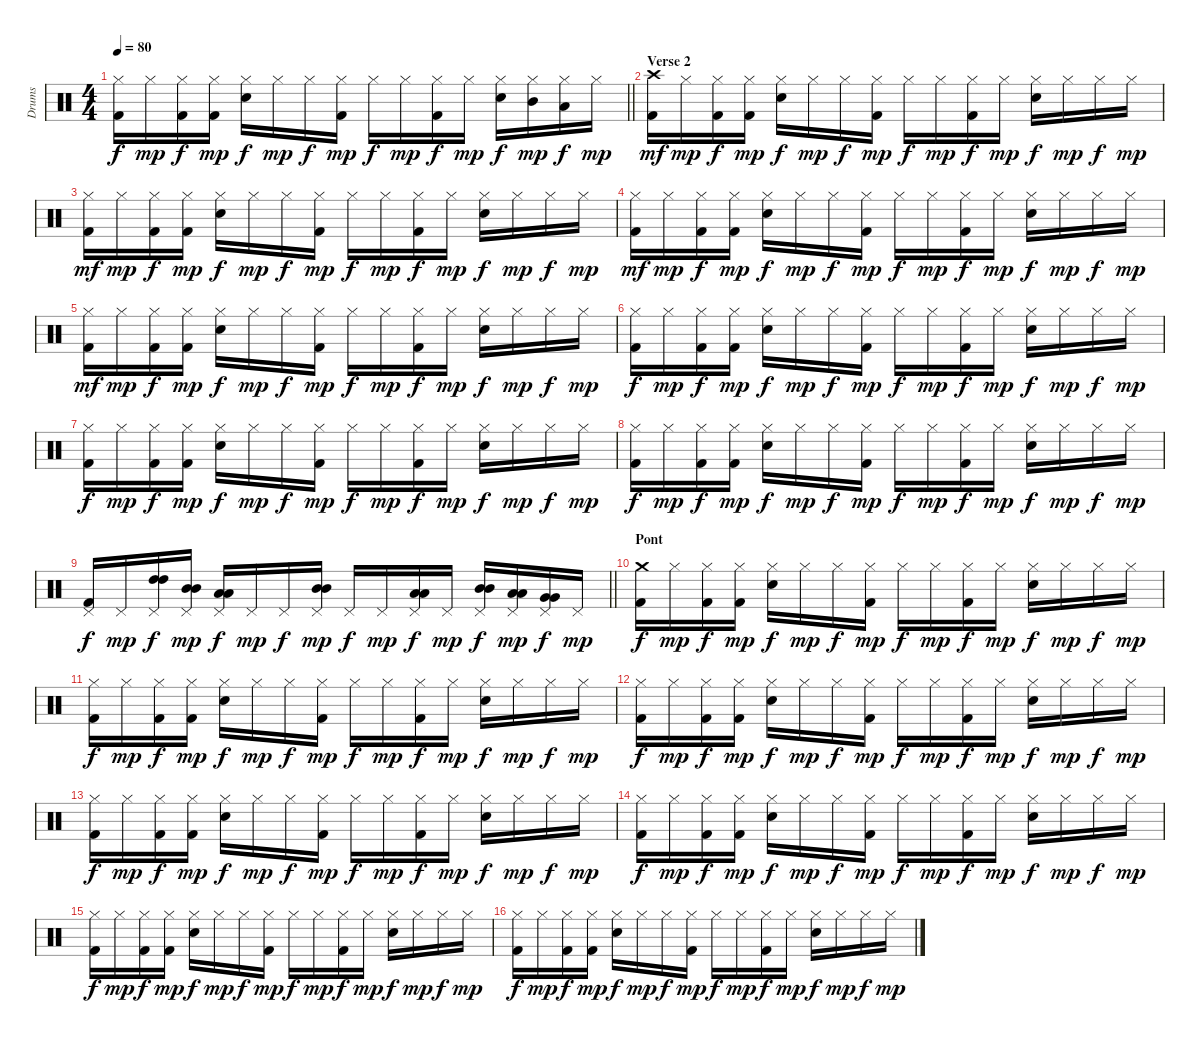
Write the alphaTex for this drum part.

\track ("Drums" "Drums") {instrument percussion}
\staff {score}
\articulation defaults
\ts (4 4)
\tempo 80
\clef neutral
\barLineRight lightlight
\ks c
("Hi-Hat (closed)" "Kick (hit) 2").16{dy f} "Hi-Hat (closed)".16{dy mp} ("Hi-Hat (closed)" "Kick (hit) 2").16{dy f} ("Hi-Hat (closed)" "Kick (hit) 2").16{dy mp} ("Hi-Hat (closed)" "Electric Snare (hit)").16{dy f} "Hi-Hat (closed)".16{dy mp} "Hi-Hat (closed)".16{dy f} ("Hi-Hat (closed)" "Kick (hit) 2").16{dy mp} "Hi-Hat (closed)".16{dy f} "Hi-Hat (closed)".16{dy mp} ("Hi-Hat (closed)" "Kick (hit) 2").16{dy f} "Hi-Hat (closed)".16{dy mp} ("Hi-Hat (closed)" "Electric Snare (hit)").16{dy f} ("Hi-Hat (closed)" "Mid Tom (hit)").16{dy mp} ("Hi-Hat (closed)" "Low Tom (hit)").16{dy f} "Hi-Hat (closed)".16{dy mp} |
\section ("" "Verse 2")
("Crash high (hit)" "Kick (hit) 2").16{dy mf} "Hi-Hat (closed)".16{dy mp} ("Hi-Hat (closed)" "Kick (hit) 2").16{dy f} ("Hi-Hat (closed)" "Kick (hit) 2").16{dy mp} ("Hi-Hat (closed)" "Electric Snare (hit)").16{dy f} "Hi-Hat (closed)".16{dy mp} "Hi-Hat (closed)".16{dy f} ("Hi-Hat (closed)" "Kick (hit) 2").16{dy mp} "Hi-Hat (closed)".16{dy f} "Hi-Hat (closed)".16{dy mp} ("Hi-Hat (closed)" "Kick (hit) 2").16{dy f} "Hi-Hat (closed)".16{dy mp} ("Hi-Hat (closed)" "Electric Snare (hit)").16{dy f} "Hi-Hat (closed)".16{dy mp} "Hi-Hat (closed)".16{dy f} "Hi-Hat (closed)".16{dy mp} |
("Hi-Hat (closed)" "Kick (hit) 2").16{dy mf} "Hi-Hat (closed)".16{dy mp} ("Hi-Hat (closed)" "Kick (hit) 2").16{dy f} ("Hi-Hat (closed)" "Kick (hit) 2").16{dy mp} ("Hi-Hat (closed)" "Electric Snare (hit)").16{dy f} "Hi-Hat (closed)".16{dy mp} "Hi-Hat (closed)".16{dy f} ("Hi-Hat (closed)" "Kick (hit) 2").16{dy mp} "Hi-Hat (closed)".16{dy f} "Hi-Hat (closed)".16{dy mp} ("Hi-Hat (closed)" "Kick (hit) 2").16{dy f} "Hi-Hat (closed)".16{dy mp} ("Hi-Hat (closed)" "Electric Snare (hit)").16{dy f} "Hi-Hat (closed)".16{dy mp} "Hi-Hat (closed)".16{dy f} "Hi-Hat (closed)".16{dy mp} |
("Hi-Hat (closed)" "Kick (hit) 2").16{dy mf} "Hi-Hat (closed)".16{dy mp} ("Hi-Hat (closed)" "Kick (hit) 2").16{dy f} ("Hi-Hat (closed)" "Kick (hit) 2").16{dy mp} ("Hi-Hat (closed)" "Electric Snare (hit)").16{dy f} "Hi-Hat (closed)".16{dy mp} "Hi-Hat (closed)".16{dy f} ("Hi-Hat (closed)" "Kick (hit) 2").16{dy mp} "Hi-Hat (closed)".16{dy f} "Hi-Hat (closed)".16{dy mp} ("Hi-Hat (closed)" "Kick (hit) 2").16{dy f} "Hi-Hat (closed)".16{dy mp} ("Hi-Hat (closed)" "Electric Snare (hit)").16{dy f} "Hi-Hat (closed)".16{dy mp} "Hi-Hat (closed)".16{dy f} "Hi-Hat (closed)".16{dy mp} |
("Hi-Hat (closed)" "Kick (hit) 2").16{dy mf} "Hi-Hat (closed)".16{dy mp} ("Hi-Hat (closed)" "Kick (hit) 2").16{dy f} ("Hi-Hat (closed)" "Kick (hit) 2").16{dy mp} ("Hi-Hat (closed)" "Electric Snare (hit)").16{dy f} "Hi-Hat (closed)".16{dy mp} "Hi-Hat (closed)".16{dy f} ("Hi-Hat (closed)" "Kick (hit) 2").16{dy mp} "Hi-Hat (closed)".16{dy f} "Hi-Hat (closed)".16{dy mp} ("Hi-Hat (closed)" "Kick (hit) 2").16{dy f} "Hi-Hat (closed)".16{dy mp} ("Hi-Hat (closed)" "Electric Snare (hit)").16{dy f} "Hi-Hat (closed)".16{dy mp} "Hi-Hat (closed)".16{dy f} "Hi-Hat (closed)".16{dy mp} |
("Hi-Hat (closed)" "Kick (hit) 2").16{dy f} "Hi-Hat (closed)".16{dy mp} ("Hi-Hat (closed)" "Kick (hit) 2").16{dy f} ("Hi-Hat (closed)" "Kick (hit) 2").16{dy mp} ("Hi-Hat (closed)" "Electric Snare (hit)").16{dy f} "Hi-Hat (closed)".16{dy mp} "Hi-Hat (closed)".16{dy f} ("Hi-Hat (closed)" "Kick (hit) 2").16{dy mp} "Hi-Hat (closed)".16{dy f} "Hi-Hat (closed)".16{dy mp} ("Hi-Hat (closed)" "Kick (hit) 2").16{dy f} "Hi-Hat (closed)".16{dy mp} ("Hi-Hat (closed)" "Electric Snare (hit)").16{dy f} "Hi-Hat (closed)".16{dy mp} "Hi-Hat (closed)".16{dy f} "Hi-Hat (closed)".16{dy mp} |
("Hi-Hat (closed)" "Kick (hit) 2").16{dy f} "Hi-Hat (closed)".16{dy mp} ("Hi-Hat (closed)" "Kick (hit) 2").16{dy f} ("Hi-Hat (closed)" "Kick (hit) 2").16{dy mp} ("Hi-Hat (closed)" "Electric Snare (hit)").16{dy f} "Hi-Hat (closed)".16{dy mp} "Hi-Hat (closed)".16{dy f} ("Hi-Hat (closed)" "Kick (hit) 2").16{dy mp} "Hi-Hat (closed)".16{dy f} "Hi-Hat (closed)".16{dy mp} ("Hi-Hat (closed)" "Kick (hit) 2").16{dy f} "Hi-Hat (closed)".16{dy mp} ("Hi-Hat (closed)" "Electric Snare (hit)").16{dy f} "Hi-Hat (closed)".16{dy mp} "Hi-Hat (closed)".16{dy f} "Hi-Hat (closed)".16{dy mp} |
("Hi-Hat (closed)" "Kick (hit) 2").16{dy f} "Hi-Hat (closed)".16{dy mp} ("Hi-Hat (closed)" "Kick (hit) 2").16{dy f} ("Hi-Hat (closed)" "Kick (hit) 2").16{dy mp} ("Hi-Hat (closed)" "Electric Snare (hit)").16{dy f} "Hi-Hat (closed)".16{dy mp} "Hi-Hat (closed)".16{dy f} ("Hi-Hat (closed)" "Kick (hit) 2").16{dy mp} "Hi-Hat (closed)".16{dy f} "Hi-Hat (closed)".16{dy mp} ("Hi-Hat (closed)" "Kick (hit) 2").16{dy f} "Hi-Hat (closed)".16{dy mp} ("Hi-Hat (closed)" "Electric Snare (hit)").16{dy f} "Hi-Hat (closed)".16{dy mp} "Hi-Hat (closed)".16{dy f} "Hi-Hat (closed)".16{dy mp} |
\barLineRight lightlight
("Pedal Hi-Hat (hit)" "Kick (hit) 2").16{dy f} "Pedal Hi-Hat (hit)".16{dy mp} ("Pedal Hi-Hat (hit)" "High Tom (hit)" "High Tom (hit)").16{dy f} ("Pedal Hi-Hat (hit)" "Mid Tom (hit)" "Mid Tom (hit)").16{dy mp} ("Pedal Hi-Hat (hit)" "Low Tom (hit)" "Low Tom (hit)").16{dy f} "Pedal Hi-Hat (hit)".16{dy mp} "Pedal Hi-Hat (hit)".16{dy f} ("Pedal Hi-Hat (hit)" "Mid Tom (hit)" "Mid Tom (hit)").16{dy mp} "Pedal Hi-Hat (hit)".16{dy f} "Pedal Hi-Hat (hit)".16{dy mp} ("Pedal Hi-Hat (hit)" "Low Tom (hit)" "Low Tom (hit)").16{dy f} "Pedal Hi-Hat (hit)".16{dy mp} ("Pedal Hi-Hat (hit)" "Mid Tom (hit)" "Mid Tom (hit)").16{dy f} ("Pedal Hi-Hat (hit)" "Low Tom (hit)" "Low Tom (hit)").16{dy mp} ("Pedal Hi-Hat (hit)" "Very Low Tom (hit)" "Very Low Tom (hit)").16{dy f} "Pedal Hi-Hat (hit)".16{dy mp} |
\section ("" "Pont")
("Crash medium (hit)" "Kick (hit) 2").16{dy f} "Hi-Hat (closed)".16{dy mp} ("Hi-Hat (closed)" "Kick (hit) 2").16{dy f} ("Hi-Hat (closed)" "Kick (hit) 2").16{dy mp} ("Hi-Hat (closed)" "Electric Snare (hit)").16{dy f} "Hi-Hat (closed)".16{dy mp} "Hi-Hat (closed)".16{dy f} ("Hi-Hat (closed)" "Kick (hit) 2").16{dy mp} "Hi-Hat (closed)".16{dy f} "Hi-Hat (closed)".16{dy mp} ("Hi-Hat (closed)" "Kick (hit) 2").16{dy f} "Hi-Hat (closed)".16{dy mp} ("Hi-Hat (closed)" "Electric Snare (hit)").16{dy f} "Hi-Hat (closed)".16{dy mp} "Hi-Hat (closed)".16{dy f} "Hi-Hat (closed)".16{dy mp} |
("Hi-Hat (closed)" "Kick (hit) 2").16{dy f} "Hi-Hat (closed)".16{dy mp} ("Hi-Hat (closed)" "Kick (hit) 2").16{dy f} ("Hi-Hat (closed)" "Kick (hit) 2").16{dy mp} ("Hi-Hat (closed)" "Electric Snare (hit)").16{dy f} "Hi-Hat (closed)".16{dy mp} "Hi-Hat (closed)".16{dy f} ("Hi-Hat (closed)" "Kick (hit) 2").16{dy mp} "Hi-Hat (closed)".16{dy f} "Hi-Hat (closed)".16{dy mp} ("Hi-Hat (closed)" "Kick (hit) 2").16{dy f} "Hi-Hat (closed)".16{dy mp} ("Hi-Hat (closed)" "Electric Snare (hit)").16{dy f} "Hi-Hat (closed)".16{dy mp} "Hi-Hat (closed)".16{dy f} "Hi-Hat (closed)".16{dy mp} |
("Hi-Hat (closed)" "Kick (hit) 2").16{dy f} "Hi-Hat (closed)".16{dy mp} ("Hi-Hat (closed)" "Kick (hit) 2").16{dy f} ("Hi-Hat (closed)" "Kick (hit) 2").16{dy mp} ("Hi-Hat (closed)" "Electric Snare (hit)").16{dy f} "Hi-Hat (closed)".16{dy mp} "Hi-Hat (closed)".16{dy f} ("Hi-Hat (closed)" "Kick (hit) 2").16{dy mp} "Hi-Hat (closed)".16{dy f} "Hi-Hat (closed)".16{dy mp} ("Hi-Hat (closed)" "Kick (hit) 2").16{dy f} "Hi-Hat (closed)".16{dy mp} ("Hi-Hat (closed)" "Electric Snare (hit)").16{dy f} "Hi-Hat (closed)".16{dy mp} "Hi-Hat (closed)".16{dy f} "Hi-Hat (closed)".16{dy mp} |
("Hi-Hat (closed)" "Kick (hit) 2").16{dy f} "Hi-Hat (closed)".16{dy mp} ("Hi-Hat (closed)" "Kick (hit) 2").16{dy f} ("Hi-Hat (closed)" "Kick (hit) 2").16{dy mp} ("Hi-Hat (closed)" "Electric Snare (hit)").16{dy f} "Hi-Hat (closed)".16{dy mp} "Hi-Hat (closed)".16{dy f} ("Hi-Hat (closed)" "Kick (hit) 2").16{dy mp} "Hi-Hat (closed)".16{dy f} "Hi-Hat (closed)".16{dy mp} ("Hi-Hat (closed)" "Kick (hit) 2").16{dy f} "Hi-Hat (closed)".16{dy mp} ("Hi-Hat (closed)" "Electric Snare (hit)").16{dy f} "Hi-Hat (closed)".16{dy mp} "Hi-Hat (closed)".16{dy f} "Hi-Hat (closed)".16{dy mp} |
("Hi-Hat (closed)" "Kick (hit) 2").16{dy f} "Hi-Hat (closed)".16{dy mp} ("Hi-Hat (closed)" "Kick (hit) 2").16{dy f} ("Hi-Hat (closed)" "Kick (hit) 2").16{dy mp} ("Hi-Hat (closed)" "Electric Snare (hit)").16{dy f} "Hi-Hat (closed)".16{dy mp} "Hi-Hat (closed)".16{dy f} ("Hi-Hat (closed)" "Kick (hit) 2").16{dy mp} "Hi-Hat (closed)".16{dy f} "Hi-Hat (closed)".16{dy mp} ("Hi-Hat (closed)" "Kick (hit) 2").16{dy f} "Hi-Hat (closed)".16{dy mp} ("Hi-Hat (closed)" "Electric Snare (hit)").16{dy f} "Hi-Hat (closed)".16{dy mp} "Hi-Hat (closed)".16{dy f} "Hi-Hat (closed)".16{dy mp} |
("Hi-Hat (closed)" "Kick (hit) 2").16{dy f} "Hi-Hat (closed)".16{dy mp} ("Hi-Hat (closed)" "Kick (hit) 2").16{dy f} ("Hi-Hat (closed)" "Kick (hit) 2").16{dy mp} ("Hi-Hat (closed)" "Electric Snare (hit)").16{dy f} "Hi-Hat (closed)".16{dy mp} "Hi-Hat (closed)".16{dy f} ("Hi-Hat (closed)" "Kick (hit) 2").16{dy mp} "Hi-Hat (closed)".16{dy f} "Hi-Hat (closed)".16{dy mp} ("Hi-Hat (closed)" "Kick (hit) 2").16{dy f} "Hi-Hat (closed)".16{dy mp} ("Hi-Hat (closed)" "Electric Snare (hit)").16{dy f} "Hi-Hat (closed)".16{dy mp} "Hi-Hat (closed)".16{dy f} "Hi-Hat (closed)".16{dy mp} |
("Hi-Hat (closed)" "Kick (hit) 2").16{dy f} "Hi-Hat (closed)".16{dy mp} ("Hi-Hat (closed)" "Kick (hit) 2").16{dy f} ("Hi-Hat (closed)" "Kick (hit) 2").16{dy mp} ("Hi-Hat (closed)" "Electric Snare (hit)").16{dy f} "Hi-Hat (closed)".16{dy mp} "Hi-Hat (closed)".16{dy f} ("Hi-Hat (closed)" "Kick (hit) 2").16{dy mp} "Hi-Hat (closed)".16{dy f} "Hi-Hat (closed)".16{dy mp} ("Hi-Hat (closed)" "Kick (hit) 2").16{dy f} "Hi-Hat (closed)".16{dy mp} ("Hi-Hat (closed)" "Electric Snare (hit)").16{dy f} "Hi-Hat (closed)".16{dy mp} "Hi-Hat (closed)".16{dy f} "Hi-Hat (closed)".16{dy mp}
